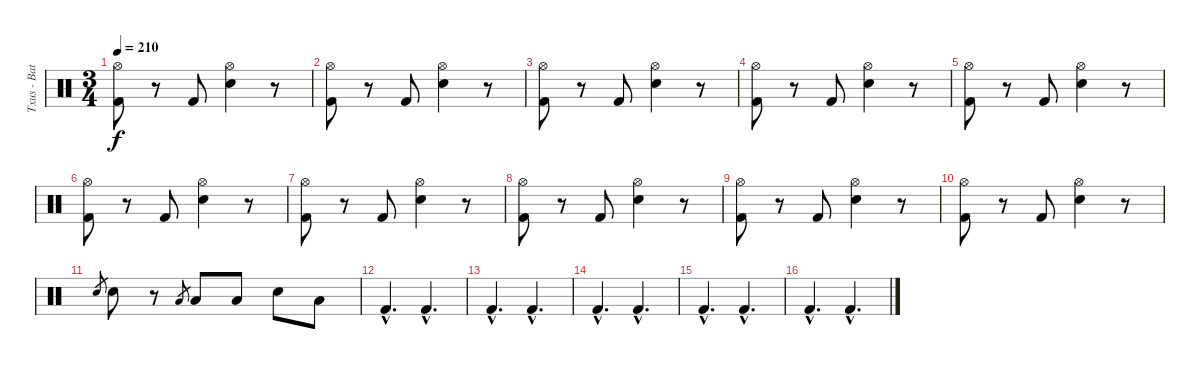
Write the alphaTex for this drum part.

\track ("Txus - Batería" "Txus - Bat") {instrument percussion}
\staff {score}
\articulation defaults
\ts (3 4)
\tempo 210
\clef neutral
\ks c
("Hi-Hat (open)" "Kick (hit) 2").8{dy f} r.8 "Kick (hit) 2".8 ("Hi-Hat (open)" "Electric Snare (hit)").4 r.8 |
("Hi-Hat (open)" "Kick (hit) 2").8 r.8 "Kick (hit) 2".8 ("Hi-Hat (open)" "Electric Snare (hit)").4 r.8 |
("Hi-Hat (open)" "Kick (hit) 2").8 r.8 "Kick (hit) 2".8 ("Hi-Hat (open)" "Electric Snare (hit)").4 r.8 |
("Hi-Hat (open)" "Kick (hit) 2").8 r.8 "Kick (hit) 2".8 ("Hi-Hat (open)" "Electric Snare (hit)").4 r.8 |
("Hi-Hat (open)" "Kick (hit) 2").8 r.8 "Kick (hit) 2".8 ("Hi-Hat (open)" "Electric Snare (hit)").4 r.8 |
("Hi-Hat (open)" "Kick (hit) 2").8 r.8 "Kick (hit) 2".8 ("Hi-Hat (open)" "Electric Snare (hit)").4 r.8 |
("Hi-Hat (open)" "Kick (hit) 2").8 r.8 "Kick (hit) 2".8 ("Hi-Hat (open)" "Electric Snare (hit)").4 r.8 |
("Hi-Hat (open)" "Kick (hit) 2").8 r.8 "Kick (hit) 2".8 ("Hi-Hat (open)" "Electric Snare (hit)").4 r.8 |
("Hi-Hat (open)" "Kick (hit) 2").8 r.8 "Kick (hit) 2".8 ("Hi-Hat (open)" "Electric Snare (hit)").4 r.8 |
("Hi-Hat (open)" "Kick (hit) 2").8 r.8 "Kick (hit) 2".8 ("Hi-Hat (open)" "Electric Snare (hit)").4 r.8 |
"Electric Snare (hit)".8{gr} "Electric Snare (hit)".8 r.8 "Low Tom (hit)".8{gr} "Low Tom (hit)".8 "Low Tom (hit)".8 "Electric Snare (hit)".8 "Low Tom (hit)".8 |
"Kick (hit) 2"{hac}.4{d volume 16} "Kick (hit) 2"{hac}.4{d} |
"Kick (hit) 2"{hac}.4{d} "Kick (hit) 2"{hac}.4{d} |
"Kick (hit) 2"{hac}.4{d} "Kick (hit) 2"{hac}.4{d} |
"Kick (hit) 2"{hac}.4{d} "Kick (hit) 2"{hac}.4{d} |
"Kick (hit) 2"{hac}.4{d} "Kick (hit) 2"{hac}.4{d}
